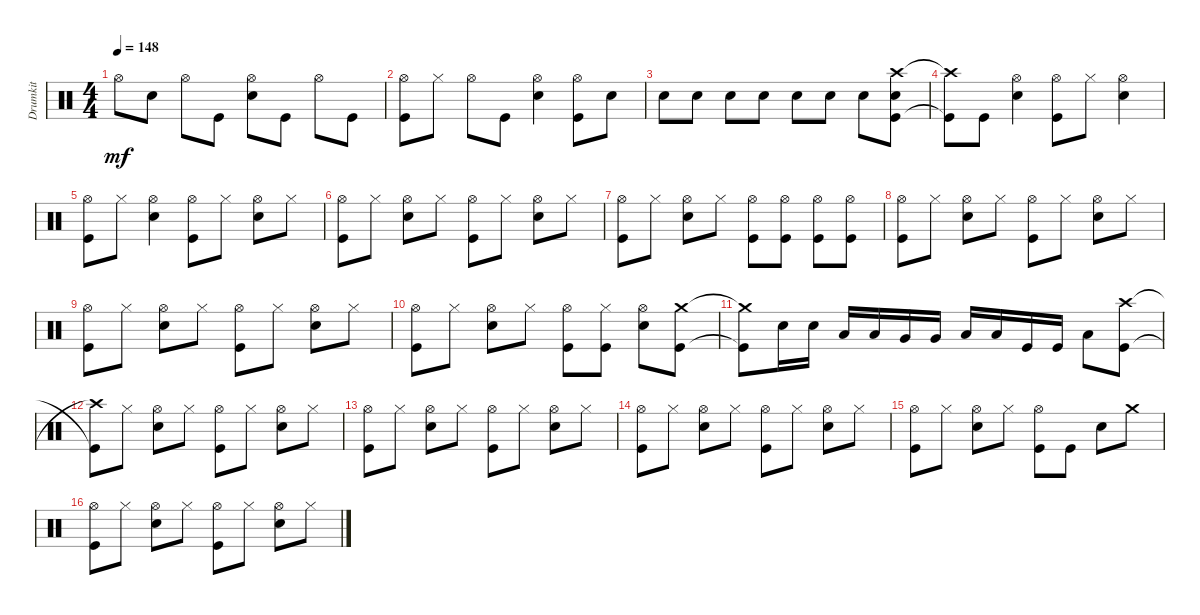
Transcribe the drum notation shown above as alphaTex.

\track ("Drumkit" "Drumkit") {instrument percussion}
\staff {score}
\articulation defaults
\ts (4 4)
\tempo 148
\clef neutral
\ks c "Hi-Hat (open)".8{dy mf} "Snare (hit) 2".8 "Hi-Hat (open)".8 "Kick (hit)".8
("Snare (hit) 2" "Hi-Hat (open)").8 "Kick (hit)".8 "Hi-Hat (open)".8 "Kick (hit)".8 |
("Kick (hit)" "Hi-Hat (open)").8 "Hi-Hat (closed)".8 "Hi-Hat (open)".8 "Kick (hit)".8 ("Hi-Hat (open)" "Snare (hit) 2").4 ("Kick (hit)" "Hi-Hat (open)").8 "Snare (hit) 2".8 |
"Snare (hit) 2".8 "Snare (hit) 2".8 "Snare (hit) 2".8 "Snare (hit) 2".8 "Snare (hit) 2".8 "Snare (hit) 2".8 "Snare (hit) 2".8 ("Kick (hit)" "Crash high (hit)" "Snare (hit) 2").8 |
("Kick (hit)"{t} "Crash high (hit)"{t}).8 "Kick (hit)".8 ("Snare (hit) 2" "Hi-Hat (open)").4 ("Kick (hit)" "Hi-Hat (open)").8 "Hi-Hat (closed)".8 ("Snare (hit) 2" "Hi-Hat (open)").4 |
("Kick (hit)" "Hi-Hat (open)").8 "Hi-Hat (closed)".8 ("Snare (hit) 2" "Hi-Hat (open)").4 ("Kick (hit)" "Hi-Hat (open)").8 "Hi-Hat (closed)".8 ("Snare (hit) 2" "Hi-Hat (open)").8 "Hi-Hat (closed)".8 |
("Kick (hit)" "Hi-Hat (open)").8 "Hi-Hat (closed)".8 ("Snare (hit) 2" "Hi-Hat (open)").8 "Hi-Hat (closed)".8 ("Kick (hit)" "Hi-Hat (open)").8 "Hi-Hat (closed)".8 ("Snare (hit) 2" "Hi-Hat (open)").8 "Hi-Hat (closed)".8 |
("Kick (hit)" "Hi-Hat (open)").8 "Hi-Hat (closed)".8 ("Snare (hit) 2" "Hi-Hat (open)").8 "Hi-Hat (closed)".8 ("Kick (hit)" "Hi-Hat (open)").8 ("Kick (hit)" "Hi-Hat (open)").8 ("Kick (hit)" "Hi-Hat (open)").8 ("Kick (hit)" "Hi-Hat (open)").8 |
("Kick (hit)" "Hi-Hat (open)").8 "Hi-Hat (closed)".8 ("Snare (hit) 2" "Hi-Hat (open)").8 "Hi-Hat (closed)".8 ("Kick (hit)" "Hi-Hat (open)").8 "Hi-Hat (closed)".8 ("Snare (hit) 2" "Hi-Hat (open)").8 "Hi-Hat (closed)".8 |
("Kick (hit)" "Hi-Hat (open)").8 "Hi-Hat (closed)".8 ("Snare (hit) 2" "Hi-Hat (open)").8 "Hi-Hat (closed)".8 ("Kick (hit)" "Hi-Hat (open)").8 "Hi-Hat (closed)".8 ("Snare (hit) 2" "Hi-Hat (open)").8 "Hi-Hat (closed)".8 |
("Kick (hit)" "Hi-Hat (open)").8 "Hi-Hat (closed)".8 ("Snare (hit) 2" "Hi-Hat (open)").8 "Hi-Hat (closed)".8 ("Kick (hit)" "Hi-Hat (open)").8 ("Hi-Hat (closed)" "Kick (hit)").8 ("Snare (hit) 2" "Hi-Hat (open)").8 ("Crash medium (hit)" "Kick (hit)").8 |
("Crash medium (hit)"{t} "Kick (hit)"{t}).8 "Snare (hit) 2".16 "Snare (hit) 2".16 "Low Tom (hit)".16 "Low Tom (hit)".16 "Very Low Tom (hit)".16 "Very Low Tom (hit)".16 "Low Floor Tom (hit)".16 "Low Floor Tom (hit)".16 "Kick (hit)".16 "Kick (hit)".16 "Low Tom (hit)".8 ("Crash high (hit)" "Kick (hit)").8 |
("Kick (hit)"{t} "Crash high (hit)"{t}).8 "Hi-Hat (closed)".8 ("Snare (hit) 2" "Hi-Hat (open)").8 "Hi-Hat (closed)".8 ("Kick (hit)" "Hi-Hat (open)").8 "Hi-Hat (closed)".8 ("Snare (hit) 2" "Hi-Hat (open)").8 "Hi-Hat (closed)".8 |
("Kick (hit)" "Hi-Hat (open)").8 "Hi-Hat (closed)".8 ("Snare (hit) 2" "Hi-Hat (open)").8 "Hi-Hat (closed)".8 ("Kick (hit)" "Hi-Hat (open)").8 "Hi-Hat (closed)".8 ("Snare (hit) 2" "Hi-Hat (open)").8 "Hi-Hat (closed)".8 |
("Kick (hit)" "Hi-Hat (open)").8 "Hi-Hat (closed)".8 ("Snare (hit) 2" "Hi-Hat (open)").8 "Hi-Hat (closed)".8 ("Kick (hit)" "Hi-Hat (open)").8 "Hi-Hat (closed)".8 ("Snare (hit) 2" "Hi-Hat (open)").8 "Hi-Hat (closed)".8 |
("Kick (hit)" "Hi-Hat (open)").8 "Hi-Hat (closed)".8 ("Snare (hit) 2" "Hi-Hat (open)").8 "Hi-Hat (closed)".8 ("Kick (hit)" "Hi-Hat (open)").8 "Kick (hit)".8 "Snare (hit) 2".8 "Crash medium (hit)".8 |
("Kick (hit)" "Hi-Hat (open)").8 "Hi-Hat (closed)".8 ("Snare (hit) 2" "Hi-Hat (open)").8 "Hi-Hat (closed)".8 ("Kick (hit)" "Hi-Hat (open)").8 "Hi-Hat (closed)".8 ("Snare (hit) 2" "Hi-Hat (open)").8 "Hi-Hat (closed)".8
